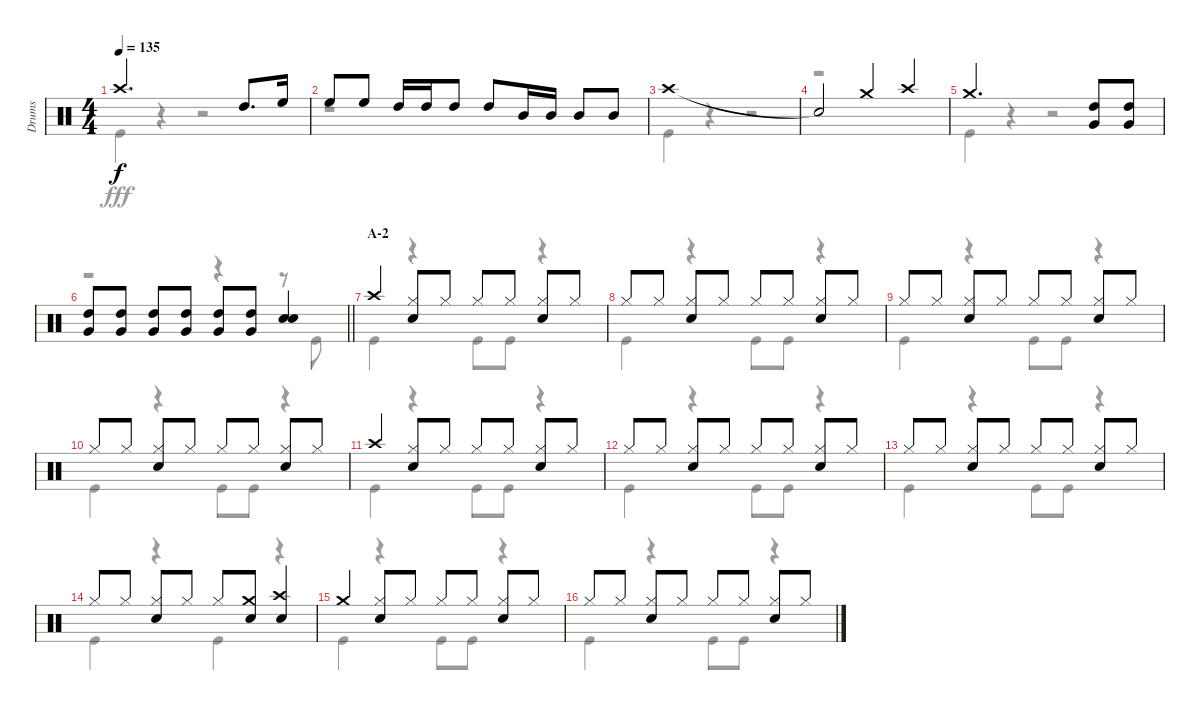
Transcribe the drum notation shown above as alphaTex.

\track ("Drums" "Drums") {instrument percussion}
\staff {score}
\articulation defaults
\voice
\ts (4 4)
\tempo 135
\clef neutral
\ks c "Crash high (hit)".2{d dy f} "High Tom (hit)".8{d} "High Floor Tom (hit)".16
|
"High Floor Tom (hit)".8 "High Floor Tom (hit)".8 "High Tom (hit)".16 "High Tom (hit)".16 "High Tom (hit)".8 "High Tom (hit)".8 "Mid Tom (hit)".16 "Mid Tom (hit)".16 "Mid Tom (hit)".8 "Mid Tom (hit)".8 |
"Crash high (hit)".1 |
"Snare (hit)"{t}.2 "Crash medium (hit)".4 "Crash high (hit)".4 |
"Crash medium (hit)".2{d} ("High Tom (hit)" "Very Low Tom (hit)").8 ("High Tom (hit)" "Very Low Tom (hit)").8 |
\barLineRight lightlight
("High Tom (hit)" "Very Low Tom (hit)").8 ("High Tom (hit)" "Very Low Tom (hit)").8 ("High Tom (hit)" "Very Low Tom (hit)").8 ("High Tom (hit)" "Very Low Tom (hit)").8 ("High Tom (hit)" "Very Low Tom (hit)").8 ("High Tom (hit)" "Very Low Tom (hit)").8 ("Snare (hit) 2" "Snare (hit) 2").4 |
\section ("" "A-2")
"Crash high (hit)".4 ("Hi-Hat (closed)" "Snare (hit) 2").8 "Hi-Hat (closed)".8 "Hi-Hat (closed)".8 "Hi-Hat (closed)".8 ("Hi-Hat (closed)" "Snare (hit) 2").8 "Hi-Hat (closed)".8 |
"Hi-Hat (closed)".8 "Hi-Hat (closed)".8 ("Hi-Hat (closed)" "Snare (hit) 2").8 "Hi-Hat (closed)".8 "Hi-Hat (closed)".8 "Hi-Hat (closed)".8 ("Hi-Hat (closed)" "Snare (hit) 2").8 "Hi-Hat (closed)".8 |
"Hi-Hat (closed)".8 "Hi-Hat (closed)".8 ("Hi-Hat (closed)" "Snare (hit) 2").8 "Hi-Hat (closed)".8 "Hi-Hat (closed)".8 "Hi-Hat (closed)".8 ("Hi-Hat (closed)" "Snare (hit) 2").8 "Hi-Hat (closed)".8 |
"Hi-Hat (closed)".8 "Hi-Hat (closed)".8 ("Hi-Hat (closed)" "Snare (hit) 2").8 "Hi-Hat (closed)".8 "Hi-Hat (closed)".8 "Hi-Hat (closed)".8 ("Hi-Hat (closed)" "Snare (hit) 2").8 "Hi-Hat (closed)".8 |
"Crash high (hit)".4 ("Hi-Hat (closed)" "Snare (hit) 2").8 "Hi-Hat (closed)".8 "Hi-Hat (closed)".8 "Hi-Hat (closed)".8 ("Hi-Hat (closed)" "Snare (hit) 2").8 "Hi-Hat (closed)".8 |
"Hi-Hat (closed)".8 "Hi-Hat (closed)".8 ("Hi-Hat (closed)" "Snare (hit) 2").8 "Hi-Hat (closed)".8 "Hi-Hat (closed)".8 "Hi-Hat (closed)".8 ("Hi-Hat (closed)" "Snare (hit) 2").8 "Hi-Hat (closed)".8 |
"Hi-Hat (closed)".8 "Hi-Hat (closed)".8 ("Hi-Hat (closed)" "Snare (hit) 2").8 "Hi-Hat (closed)".8 "Hi-Hat (closed)".8 "Hi-Hat (closed)".8 ("Hi-Hat (closed)" "Snare (hit) 2").8 "Hi-Hat (closed)".8 |
"Hi-Hat (closed)".8 "Hi-Hat (closed)".8 ("Hi-Hat (closed)" "Snare (hit) 2").8 "Hi-Hat (closed)".8 "Hi-Hat (closed)".8 ("Crash medium (hit)" "Snare (hit) 2").8 ("Crash high (hit)" "Snare (hit) 2").4 |
"Crash medium (hit)".4 ("Hi-Hat (closed)" "Snare (hit) 2").8 "Hi-Hat (closed)".8 "Hi-Hat (closed)".8 "Hi-Hat (closed)".8 ("Hi-Hat (closed)" "Snare (hit) 2").8 "Hi-Hat (closed)".8 |
"Hi-Hat (closed)".8 "Hi-Hat (closed)".8 ("Hi-Hat (closed)" "Snare (hit) 2").8 "Hi-Hat (closed)".8 "Hi-Hat (closed)".8 "Hi-Hat (closed)".8 ("Hi-Hat (closed)" "Snare (hit) 2").8 "Hi-Hat (closed)".8
\voice
\clef neutral
\ottava regular
\simile none
\ks c "Kick (hit)".4{dy fff}
r.4 r.2 |
r.1 |
"Kick (hit)".4 r.4 r.2 |
r.1 |
"Kick (hit)".4 r.4 r.2 |
\barLineRight lightlight
r.2 r.4 r.8 "Kick (hit)".8 |
"Kick (hit)".4 r.4 "Kick (hit)".8 "Kick (hit)".8 r.4 |
"Kick (hit)".4 r.4 "Kick (hit)".8 "Kick (hit)".8 r.4 |
"Kick (hit)".4 r.4 "Kick (hit)".8 "Kick (hit)".8 r.4 |
"Kick (hit)".4 r.4 "Kick (hit)".8 "Kick (hit)".8 r.4 |
"Kick (hit)".4 r.4 "Kick (hit)".8 "Kick (hit)".8 r.4 |
"Kick (hit)".4 r.4 "Kick (hit)".8 "Kick (hit)".8 r.4 |
"Kick (hit)".4 r.4 "Kick (hit)".8 "Kick (hit)".8 r.4 |
"Kick (hit)".4 r.4 "Kick (hit)".4 r.4 |
"Kick (hit)".4 r.4 "Kick (hit)".8 "Kick (hit)".8 r.4 |
"Kick (hit)".4 r.4 "Kick (hit)".8 "Kick (hit)".8 r.4
